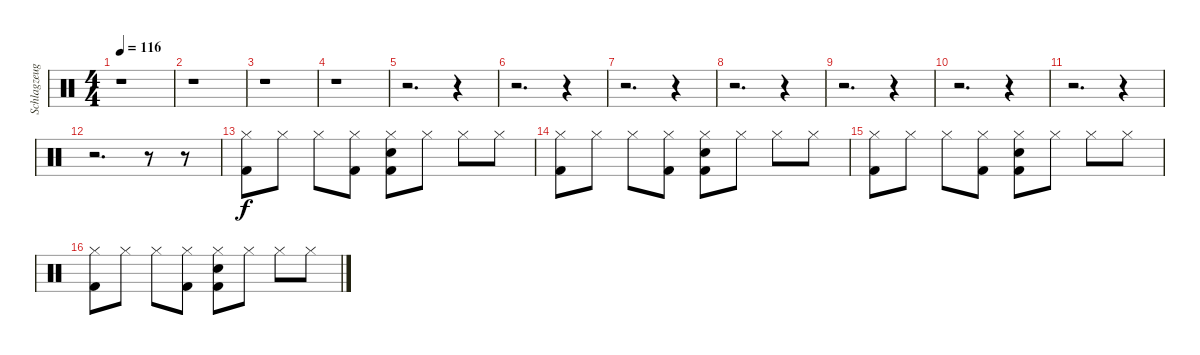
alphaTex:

\track ("Schlagzeug" "Schlagzeug") {instrument percussion}
\staff {score}
\articulation defaults
\ts (4 4)
\tempo 116
\clef neutral
\ks c
r.1{dy f} |
r.1 |
r.1 |
r.1 |
r.2{d} r.4 |
r.2{d} r.4 |
r.2{d} r.4 |
r.2{d} r.4 |
r.2{d} r.4 |
r.2{d} r.4 |
r.2{d} r.4 |
r.2{d} r.8 r.8 |
("Hi-Hat (closed)" "Kick (hit) 2").8 "Hi-Hat (closed)".8 "Hi-Hat (closed)".8 ("Hi-Hat (closed)" "Kick (hit) 2").8 ("Snare (hit) 2" "Hi-Hat (closed)" "Kick (hit) 2").8 "Hi-Hat (closed)".8 "Hi-Hat (closed)".8 "Hi-Hat (closed)".8 |
("Hi-Hat (closed)" "Kick (hit) 2").8 "Hi-Hat (closed)".8 "Hi-Hat (closed)".8 ("Hi-Hat (closed)" "Kick (hit) 2").8 ("Snare (hit) 2" "Hi-Hat (closed)" "Kick (hit) 2").8 "Hi-Hat (closed)".8 "Hi-Hat (closed)".8 "Hi-Hat (closed)".8 |
("Hi-Hat (closed)" "Kick (hit) 2").8 "Hi-Hat (closed)".8 "Hi-Hat (closed)".8 ("Hi-Hat (closed)" "Kick (hit) 2").8 ("Snare (hit) 2" "Hi-Hat (closed)" "Kick (hit) 2").8 "Hi-Hat (closed)".8 "Hi-Hat (closed)".8 "Hi-Hat (closed)".8 |
("Hi-Hat (closed)" "Kick (hit) 2").8 "Hi-Hat (closed)".8 "Hi-Hat (closed)".8 ("Hi-Hat (closed)" "Kick (hit) 2").8 ("Snare (hit) 2" "Hi-Hat (closed)" "Kick (hit) 2").8 "Hi-Hat (closed)".8 "Hi-Hat (closed)".8 "Hi-Hat (closed)".8
